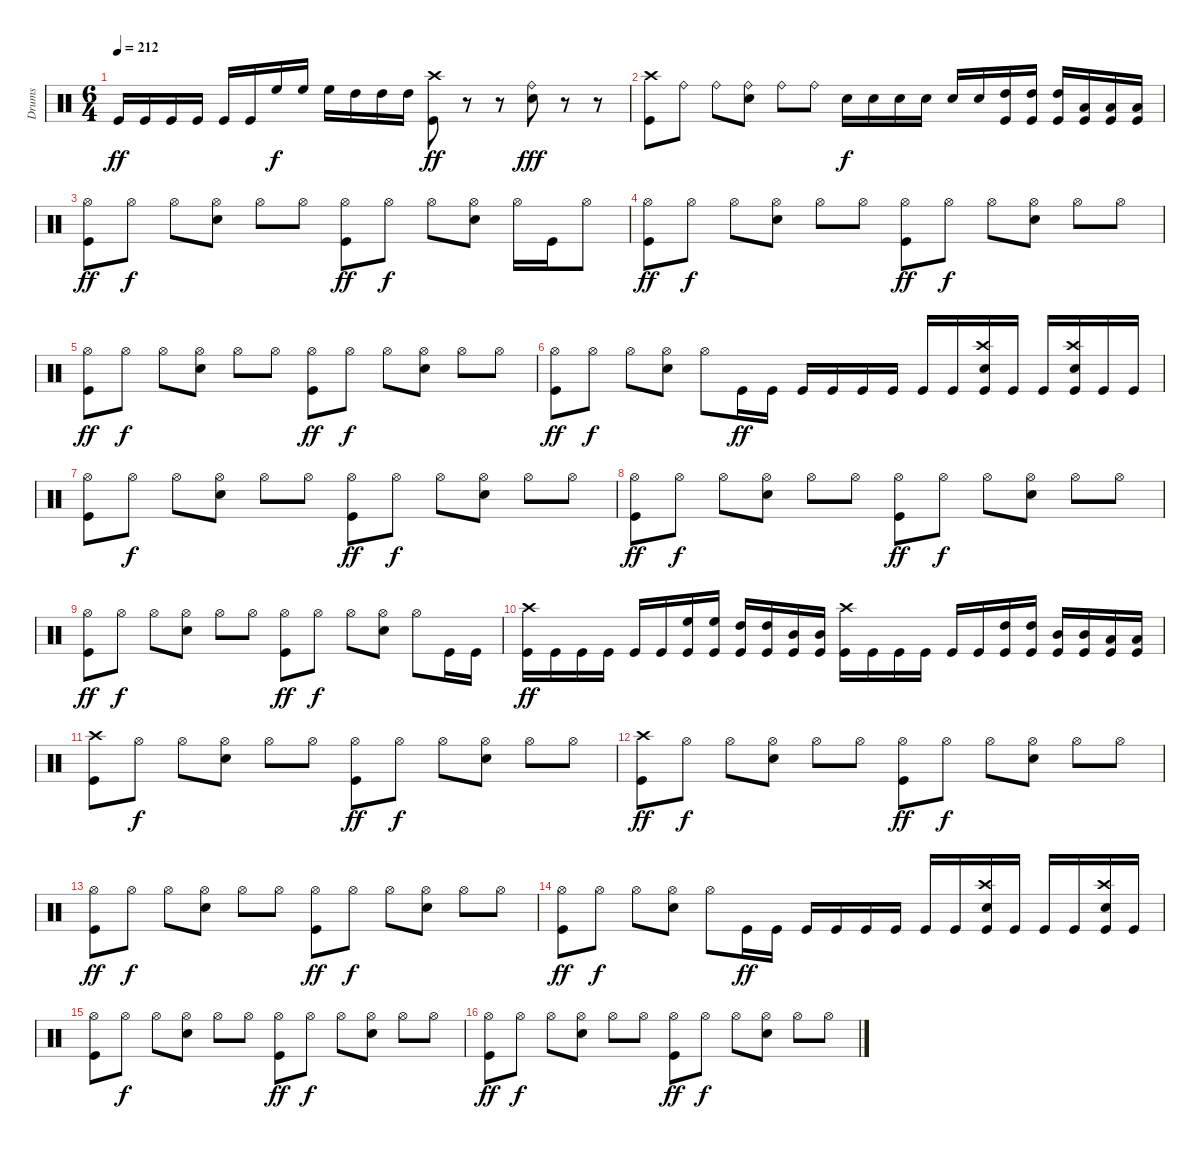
\track ("Drums" "Drums") {instrument percussion}
\staff {score}
\articulation defaults
\ts (6 4)
\tempo 212
\clef neutral
\ks c "Kick (hit)".16{dy ff} "Kick (hit)".16 "Kick (hit)".16 "Kick (hit)".16 "Kick (hit)".16 "Kick (hit)".16 "High Floor Tom (hit)".16{dy f} "High Floor Tom (hit)".16 "High Floor Tom (hit)".16 "High Tom (hit)".16 "High Tom (hit)".16 "High Tom (hit)".16
("Crash high (hit)" "Kick (hit)").8{dy ff} r.8 r.8 ("Ride (bell)" "Snare (hit) 2").8{dy fff} r.8 r.8 |
("Crash high (hit)" "Kick (hit)").8 "Ride (bell)".8 "Ride (bell)".8 ("Ride (bell)" "Snare (hit) 2").8 "Ride (bell)".8 "Ride (bell)".8 "Snare (hit) 2".16{dy f} "Snare (hit) 2".16 "Snare (hit) 2".16 "Snare (hit) 2".16 "Snare (hit) 2".16 "Snare (hit) 2".16 ("High Tom (hit)" "Kick (hit)").16 ("High Tom (hit)" "Kick (hit)").16 ("High Tom (hit)" "Kick (hit)").16 ("Low Tom (hit)" "Kick (hit)").16 ("Low Tom (hit)" "Kick (hit)").16 ("Low Tom (hit)" "Kick (hit)").16 |
("Hi-Hat (open)" "Kick (hit)").8{dy ff} "Hi-Hat (open)".8{dy f} "Hi-Hat (open)".8 ("Hi-Hat (open)" "Snare (hit) 2").8 "Hi-Hat (open)".8 "Hi-Hat (open)".8 ("Hi-Hat (open)" "Kick (hit)").8{dy ff} "Hi-Hat (open)".8{dy f} "Hi-Hat (open)".8 ("Hi-Hat (open)" "Snare (hit) 2").8 "Hi-Hat (open)".16 "Kick (hit)".16 "Hi-Hat (open)".8 |
("Hi-Hat (open)" "Kick (hit)").8{dy ff} "Hi-Hat (open)".8{dy f} "Hi-Hat (open)".8 ("Hi-Hat (open)" "Snare (hit) 2").8 "Hi-Hat (open)".8 "Hi-Hat (open)".8 ("Hi-Hat (open)" "Kick (hit)").8{dy ff} "Hi-Hat (open)".8{dy f} "Hi-Hat (open)".8 ("Hi-Hat (open)" "Snare (hit) 2").8 "Hi-Hat (open)".8 "Hi-Hat (open)".8 |
("Hi-Hat (open)" "Kick (hit)").8{dy ff} "Hi-Hat (open)".8{dy f} "Hi-Hat (open)".8 ("Hi-Hat (open)" "Snare (hit) 2").8 "Hi-Hat (open)".8 "Hi-Hat (open)".8 ("Hi-Hat (open)" "Kick (hit)").8{dy ff} "Hi-Hat (open)".8{dy f} "Hi-Hat (open)".8 ("Hi-Hat (open)" "Snare (hit) 2").8 "Hi-Hat (open)".8 "Hi-Hat (open)".8 |
("Hi-Hat (open)" "Kick (hit)").8{dy ff} "Hi-Hat (open)".8{dy f} "Hi-Hat (open)".8 ("Hi-Hat (open)" "Snare (hit) 2").8 "Hi-Hat (open)".8 "Kick (hit)".16{dy ff} "Kick (hit)".16 "Kick (hit)".16 "Kick (hit)".16 "Kick (hit)".16 "Kick (hit)".16 "Kick (hit)".16 "Kick (hit)".16 ("Crash high (hit)" "Snare (hit) 2" "Kick (hit)").16 "Kick (hit)".16 "Kick (hit)".16 ("Crash high (hit)" "Snare (hit) 2" "Kick (hit)").16 "Kick (hit)".16 "Kick (hit)".16 |
("Hi-Hat (open)" "Kick (hit)").8 "Hi-Hat (open)".8{dy f} "Hi-Hat (open)".8 ("Hi-Hat (open)" "Snare (hit) 2").8 "Hi-Hat (open)".8 "Hi-Hat (open)".8 ("Hi-Hat (open)" "Kick (hit)").8{dy ff} "Hi-Hat (open)".8{dy f} "Hi-Hat (open)".8 ("Hi-Hat (open)" "Snare (hit) 2").8 "Hi-Hat (open)".8 "Hi-Hat (open)".8 |
("Hi-Hat (open)" "Kick (hit)").8{dy ff} "Hi-Hat (open)".8{dy f} "Hi-Hat (open)".8 ("Hi-Hat (open)" "Snare (hit) 2").8 "Hi-Hat (open)".8 "Hi-Hat (open)".8 ("Hi-Hat (open)" "Kick (hit)").8{dy ff} "Hi-Hat (open)".8{dy f} "Hi-Hat (open)".8 ("Hi-Hat (open)" "Snare (hit) 2").8 "Hi-Hat (open)".8 "Hi-Hat (open)".8 |
("Hi-Hat (open)" "Kick (hit)").8{dy ff} "Hi-Hat (open)".8{dy f} "Hi-Hat (open)".8 ("Hi-Hat (open)" "Snare (hit) 2").8 "Hi-Hat (open)".8 "Hi-Hat (open)".8 ("Hi-Hat (open)" "Kick (hit)").8{dy ff} "Hi-Hat (open)".8{dy f} "Hi-Hat (open)".8 ("Hi-Hat (open)" "Snare (hit) 2").8 "Hi-Hat (open)".8 "Kick (hit)".16 "Kick (hit)".16 |
("Crash high (hit)" "Kick (hit)").16{dy ff} "Kick (hit)".16 "Kick (hit)".16 "Kick (hit)".16 "Kick (hit)".16 "Kick (hit)".16 ("High Floor Tom (hit)" "Kick (hit)").16 ("High Floor Tom (hit)" "Kick (hit)").16 ("High Tom (hit)" "Kick (hit)").16 ("High Tom (hit)" "Kick (hit)").16 ("Mid Tom (hit)" "Kick (hit)").16 ("Mid Tom (hit)" "Kick (hit)").16 ("Crash high (hit)" "Kick (hit)").16 "Kick (hit)".16 "Kick (hit)".16 "Kick (hit)".16 "Kick (hit)".16 "Kick (hit)".16 ("High Tom (hit)" "Kick (hit)").16 ("High Tom (hit)" "Kick (hit)").16 ("Mid Tom (hit)" "Kick (hit)").16 ("Mid Tom (hit)" "Kick (hit)").16 ("Low Tom (hit)" "Kick (hit)").16 ("Low Tom (hit)" "Kick (hit)").16 |
("Crash high (hit)" "Kick (hit)").8 "Hi-Hat (open)".8{dy f} "Hi-Hat (open)".8 ("Hi-Hat (open)" "Snare (hit) 2").8 "Hi-Hat (open)".8 "Hi-Hat (open)".8 ("Hi-Hat (open)" "Kick (hit)").8{dy ff} "Hi-Hat (open)".8{dy f} "Hi-Hat (open)".8 ("Hi-Hat (open)" "Snare (hit) 2").8 "Hi-Hat (open)".8 "Hi-Hat (open)".8 |
("Crash high (hit)" "Kick (hit)").8{dy ff} "Hi-Hat (open)".8{dy f} "Hi-Hat (open)".8 ("Hi-Hat (open)" "Snare (hit) 2").8 "Hi-Hat (open)".8 "Hi-Hat (open)".8 ("Hi-Hat (open)" "Kick (hit)").8{dy ff} "Hi-Hat (open)".8{dy f} "Hi-Hat (open)".8 ("Hi-Hat (open)" "Snare (hit) 2").8 "Hi-Hat (open)".8 "Hi-Hat (open)".8 |
("Hi-Hat (open)" "Kick (hit)").8{dy ff} "Hi-Hat (open)".8{dy f} "Hi-Hat (open)".8 ("Hi-Hat (open)" "Snare (hit) 2").8 "Hi-Hat (open)".8 "Hi-Hat (open)".8 ("Hi-Hat (open)" "Kick (hit)").8{dy ff} "Hi-Hat (open)".8{dy f} "Hi-Hat (open)".8 ("Hi-Hat (open)" "Snare (hit) 2").8 "Hi-Hat (open)".8 "Hi-Hat (open)".8 |
("Hi-Hat (open)" "Kick (hit)").8{dy ff} "Hi-Hat (open)".8{dy f} "Hi-Hat (open)".8 ("Hi-Hat (open)" "Snare (hit) 2").8 "Hi-Hat (open)".8 "Kick (hit)".16{dy ff} "Kick (hit)".16 "Kick (hit)".16 "Kick (hit)".16 "Kick (hit)".16 "Kick (hit)".16 "Kick (hit)".16 "Kick (hit)".16 ("Crash high (hit)" "Snare (hit) 2" "Kick (hit)").16 "Kick (hit)".16 "Kick (hit)".16 "Kick (hit)".16 ("Crash high (hit)" "Snare (hit) 2" "Kick (hit)").16 "Kick (hit)".16 |
("Hi-Hat (open)" "Kick (hit)").8 "Hi-Hat (open)".8{dy f} "Hi-Hat (open)".8 ("Hi-Hat (open)" "Snare (hit) 2").8 "Hi-Hat (open)".8 "Hi-Hat (open)".8 ("Hi-Hat (open)" "Kick (hit)").8{dy ff} "Hi-Hat (open)".8{dy f} "Hi-Hat (open)".8 ("Hi-Hat (open)" "Snare (hit) 2").8 "Hi-Hat (open)".8 "Hi-Hat (open)".8 |
("Hi-Hat (open)" "Kick (hit)").8{dy ff} "Hi-Hat (open)".8{dy f} "Hi-Hat (open)".8 ("Hi-Hat (open)" "Snare (hit) 2").8 "Hi-Hat (open)".8 "Hi-Hat (open)".8 ("Hi-Hat (open)" "Kick (hit)").8{dy ff} "Hi-Hat (open)".8{dy f} "Hi-Hat (open)".8 ("Hi-Hat (open)" "Snare (hit) 2").8 "Hi-Hat (open)".8 "Hi-Hat (open)".8
